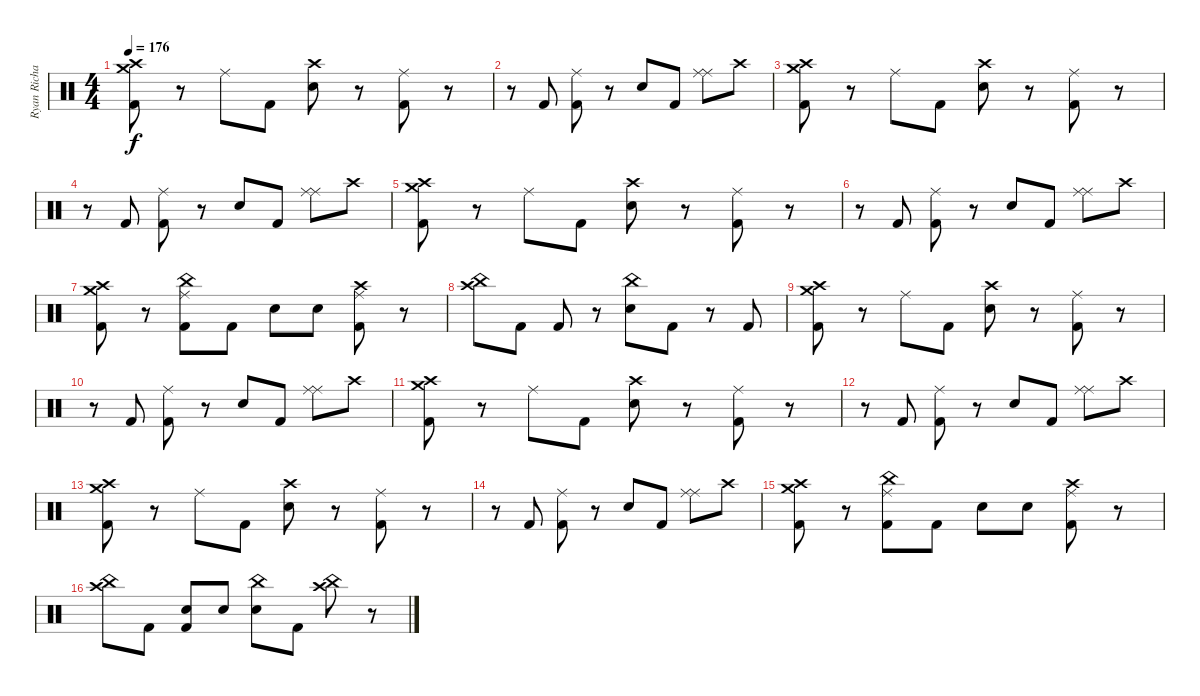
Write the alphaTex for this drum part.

\track ("Ryan Richards (drums)" "Ryan Richa") {instrument percussion}
\staff {score}
\articulation defaults
\ts (4 4)
\tempo 176
\clef neutral
\ks c
("Crash high (hit)" "Crash medium (hit)" "Kick (hit) 2").8{dy f} r.8 "Ride (middle)".8 "Kick (hit) 2".8 ("Crash high (hit)" "Snare (hit) 2").8 r.8 ("Ride (middle)" "Kick (hit) 2").8 r.8 |
r.8 "Kick (hit) 2".8 ("Ride (middle)" "Kick (hit) 2").8 r.8 "Snare (hit) 2".8 "Kick (hit) 2".8 ("Ride (middle)" "Ride (middle)").8 "Crash high (hit)".8 |
("Crash high (hit)" "Crash medium (hit)" "Kick (hit) 2").8 r.8 "Ride (middle)".8 "Kick (hit) 2".8 ("Crash high (hit)" "Snare (hit) 2").8 r.8 ("Ride (middle)" "Kick (hit) 2").8 r.8 |
r.8 "Kick (hit) 2".8 ("Ride (middle)" "Kick (hit) 2").8 r.8 "Snare (hit) 2".8 "Kick (hit) 2".8 ("Ride (middle)" "Ride (middle)").8 "Crash high (hit)".8 |
("Crash high (hit)" "Crash medium (hit)" "Kick (hit) 2").8 r.8 "Ride (middle)".8 "Kick (hit) 2".8 ("Crash high (hit)" "Snare (hit) 2").8 r.8 ("Ride (middle)" "Kick (hit) 2").8 r.8 |
r.8 "Kick (hit) 2".8 ("Ride (middle)" "Kick (hit) 2").8 r.8 "Snare (hit) 2".8 "Kick (hit) 2".8 ("Ride (middle)" "Ride (middle)").8 "Crash high (hit)".8 |
("Crash high (hit)" "Crash medium (hit)" "Kick (hit) 2").8 r.8 ("China (hit)" "Ride (middle)" "Kick (hit) 2").8 "Kick (hit) 2".8 "Snare (hit) 2".8 "Snare (hit) 2".8 ("Crash high (hit)" "Ride (middle)" "Kick (hit) 2").8 r.8 |
("Crash high (hit)" "China (hit)").8 "Kick (hit) 2".8 "Kick (hit) 2".8 r.8 ("China (hit)" "Snare (hit) 2").8 "Kick (hit) 2".8 r.8 "Kick (hit) 2".8 |
("Crash high (hit)" "Crash medium (hit)" "Kick (hit) 2").8 r.8 "Ride (middle)".8 "Kick (hit) 2".8 ("Crash high (hit)" "Snare (hit) 2").8 r.8 ("Ride (middle)" "Kick (hit) 2").8 r.8 |
r.8 "Kick (hit) 2".8 ("Ride (middle)" "Kick (hit) 2").8 r.8 "Snare (hit) 2".8 "Kick (hit) 2".8 ("Ride (middle)" "Ride (middle)").8 "Crash high (hit)".8 |
("Crash high (hit)" "Crash medium (hit)" "Kick (hit) 2").8 r.8 "Ride (middle)".8 "Kick (hit) 2".8 ("Crash high (hit)" "Snare (hit) 2").8 r.8 ("Ride (middle)" "Kick (hit) 2").8 r.8 |
r.8 "Kick (hit) 2".8 ("Ride (middle)" "Kick (hit) 2").8 r.8 "Snare (hit) 2".8 "Kick (hit) 2".8 ("Ride (middle)" "Ride (middle)").8 "Crash high (hit)".8 |
("Crash high (hit)" "Crash medium (hit)" "Kick (hit) 2").8 r.8 "Ride (middle)".8 "Kick (hit) 2".8 ("Crash high (hit)" "Snare (hit) 2").8 r.8 ("Ride (middle)" "Kick (hit) 2").8 r.8 |
r.8 "Kick (hit) 2".8 ("Ride (middle)" "Kick (hit) 2").8 r.8 "Snare (hit) 2".8 "Kick (hit) 2".8 ("Ride (middle)" "Ride (middle)").8 "Crash high (hit)".8 |
("Crash high (hit)" "Crash medium (hit)" "Kick (hit) 2").8 r.8 ("China (hit)" "Ride (middle)" "Kick (hit) 2").8 "Kick (hit) 2".8 "Snare (hit) 2".8 "Snare (hit) 2".8 ("Crash high (hit)" "Ride (middle)" "Kick (hit) 2").8 r.8 |
("Crash high (hit)" "China (hit)").8 "Kick (hit) 2".8 ("Snare (hit) 2" "Kick (hit) 2").8 "Snare (hit) 2".8 ("China (hit)" "Snare (hit) 2").8 "Kick (hit) 2".8 ("China (hit)" "Crash high (hit)").8 r.8
